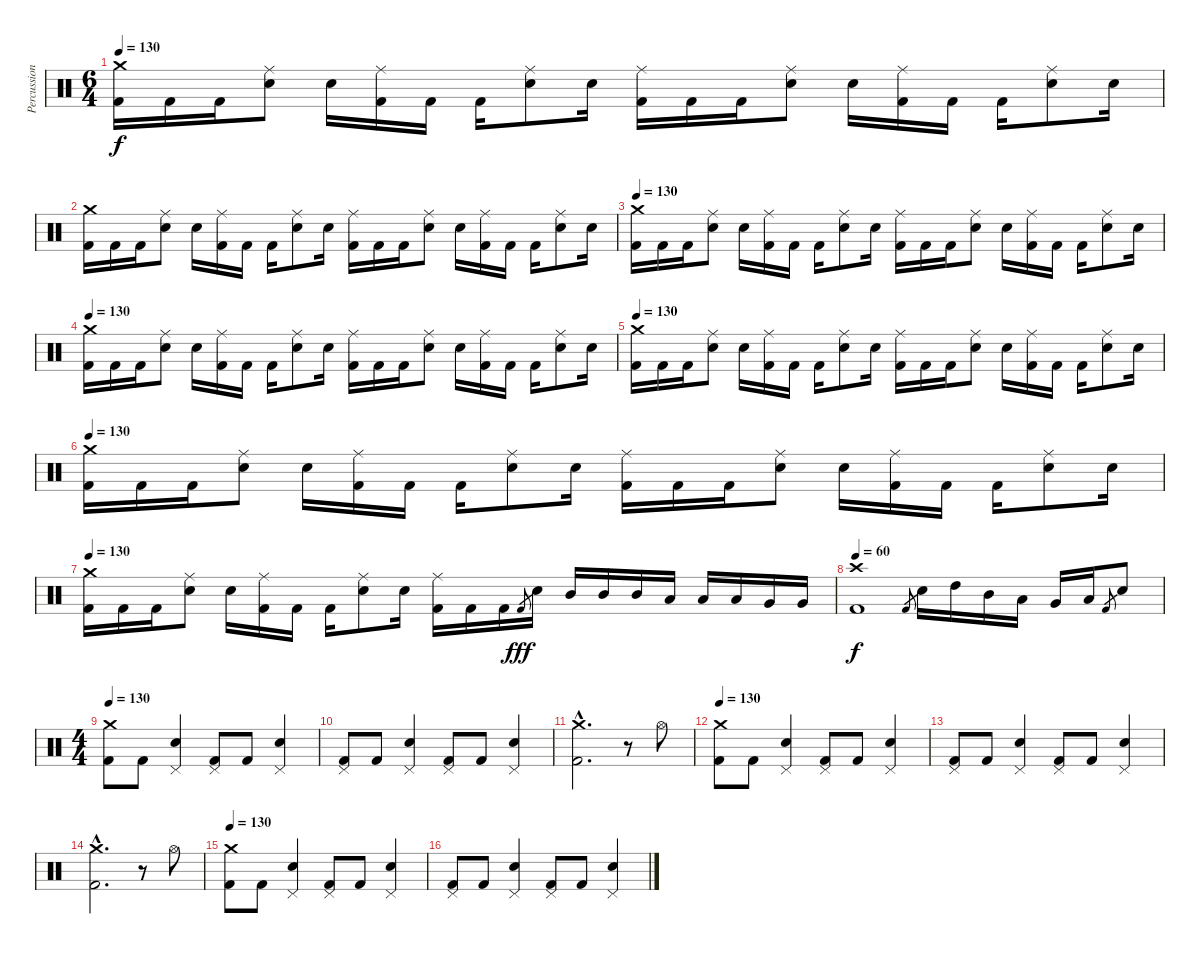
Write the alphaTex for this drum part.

\track ("Percussions" "Percussion") {instrument percussion}
\staff {score}
\articulation defaults
\ts (6 4)
\tempo 130
\clef neutral
\ks c
("Crash medium (hit)" "Kick (hit) 2").16{dy f} "Kick (hit) 2".16 "Kick (hit) 2".16 ("Ride (middle)" "Snare (hit) 2").8 "Snare (hit) 2".16 ("Ride (middle)" "Kick (hit) 2").16 "Kick (hit) 2".16 "Kick (hit) 2".16 ("Ride (middle)" "Snare (hit) 2").8 "Snare (hit) 2".16 ("Ride (middle)" "Kick (hit) 2").16 "Kick (hit) 2".16 "Kick (hit) 2".16 ("Ride (middle)" "Snare (hit) 2").8 "Snare (hit) 2".16 ("Ride (middle)" "Kick (hit) 2").16 "Kick (hit) 2".16 "Kick (hit) 2".16 ("Ride (middle)" "Snare (hit) 2").8 "Snare (hit) 2".16 |
("Crash medium (hit)" "Kick (hit) 2").16 "Kick (hit) 2".16 "Kick (hit) 2".16 ("Ride (middle)" "Snare (hit) 2").8 "Snare (hit) 2".16 ("Ride (middle)" "Kick (hit) 2").16 "Kick (hit) 2".16 "Kick (hit) 2".16 ("Ride (middle)" "Snare (hit) 2").8 "Snare (hit) 2".16 ("Ride (middle)" "Kick (hit) 2").16 "Kick (hit) 2".16 "Kick (hit) 2".16 ("Ride (middle)" "Snare (hit) 2").8 "Snare (hit) 2".16 ("Ride (middle)" "Kick (hit) 2").16 "Kick (hit) 2".16 "Kick (hit) 2".16 ("Ride (middle)" "Snare (hit) 2").8 "Snare (hit) 2".16 |
\tempo 130
("Crash medium (hit)" "Kick (hit) 2").16 "Kick (hit) 2".16 "Kick (hit) 2".16 ("Ride (middle)" "Snare (hit) 2").8 "Snare (hit) 2".16 ("Ride (middle)" "Kick (hit) 2").16 "Kick (hit) 2".16 "Kick (hit) 2".16 ("Ride (middle)" "Snare (hit) 2").8 "Snare (hit) 2".16 ("Ride (middle)" "Kick (hit) 2").16 "Kick (hit) 2".16 "Kick (hit) 2".16 ("Ride (middle)" "Snare (hit) 2").8 "Snare (hit) 2".16 ("Ride (middle)" "Kick (hit) 2").16 "Kick (hit) 2".16 "Kick (hit) 2".16 ("Ride (middle)" "Snare (hit) 2").8 "Snare (hit) 2".16 |
\tempo 130
("Crash medium (hit)" "Kick (hit) 2").16 "Kick (hit) 2".16 "Kick (hit) 2".16 ("Ride (middle)" "Snare (hit) 2").8 "Snare (hit) 2".16 ("Ride (middle)" "Kick (hit) 2").16 "Kick (hit) 2".16 "Kick (hit) 2".16 ("Ride (middle)" "Snare (hit) 2").8 "Snare (hit) 2".16 ("Ride (middle)" "Kick (hit) 2").16 "Kick (hit) 2".16 "Kick (hit) 2".16 ("Ride (middle)" "Snare (hit) 2").8 "Snare (hit) 2".16 ("Ride (middle)" "Kick (hit) 2").16 "Kick (hit) 2".16 "Kick (hit) 2".16 ("Ride (middle)" "Snare (hit) 2").8 "Snare (hit) 2".16 |
\tempo 130
("Crash medium (hit)" "Kick (hit) 2").16 "Kick (hit) 2".16 "Kick (hit) 2".16 ("Ride (middle)" "Snare (hit) 2").8 "Snare (hit) 2".16 ("Ride (middle)" "Kick (hit) 2").16 "Kick (hit) 2".16 "Kick (hit) 2".16 ("Ride (middle)" "Snare (hit) 2").8 "Snare (hit) 2".16 ("Ride (middle)" "Kick (hit) 2").16 "Kick (hit) 2".16 "Kick (hit) 2".16 ("Ride (middle)" "Snare (hit) 2").8 "Snare (hit) 2".16 ("Ride (middle)" "Kick (hit) 2").16 "Kick (hit) 2".16 "Kick (hit) 2".16 ("Ride (middle)" "Snare (hit) 2").8 "Snare (hit) 2".16 |
\tempo 130
("Crash medium (hit)" "Kick (hit) 2").16 "Kick (hit) 2".16 "Kick (hit) 2".16 ("Ride (middle)" "Snare (hit) 2").8 "Snare (hit) 2".16 ("Ride (middle)" "Kick (hit) 2").16 "Kick (hit) 2".16 "Kick (hit) 2".16 ("Ride (middle)" "Snare (hit) 2").8 "Snare (hit) 2".16 ("Ride (middle)" "Kick (hit) 2").16 "Kick (hit) 2".16 "Kick (hit) 2".16 ("Ride (middle)" "Snare (hit) 2").8 "Snare (hit) 2".16 ("Ride (middle)" "Kick (hit) 2").16 "Kick (hit) 2".16 "Kick (hit) 2".16 ("Ride (middle)" "Snare (hit) 2").8 "Snare (hit) 2".16 |
\tempo 80
\tempo 130
("Crash medium (hit)" "Kick (hit) 2").16 "Kick (hit) 2".16 "Kick (hit) 2".16 ("Ride (middle)" "Snare (hit) 2").8 "Snare (hit) 2".16 ("Ride (middle)" "Kick (hit) 2").16 "Kick (hit) 2".16 "Kick (hit) 2".16 ("Ride (middle)" "Snare (hit) 2").8 "Snare (hit) 2".16 ("Ride (middle)" "Kick (hit) 2").16 "Kick (hit) 2".16 "Kick (hit) 2".16 "Kick (hit) 2".8{gr dy fff} "Snare (hit) 2".16 "Mid Tom (hit)".16 "Mid Tom (hit)".16 "Mid Tom (hit)".16 "Low Tom (hit)".16 "Low Tom (hit)".16 "Low Tom (hit)".16 "Very Low Tom (hit)".16 "Very Low Tom (hit)".16 |
\tempo 60
("Crash high (hit)" "Kick (hit) 2").1{dy f} "Kick (hit) 2".8{gr} "Snare (hit) 2".16 "High Tom (hit)".16 "Mid Tom (hit)".16 "Low Tom (hit)".16 "Very Low Tom (hit)".16 "Low Floor Tom (hit)".16 "Kick (hit) 2".8{gr} "Snare (hit) 2".8 |
\ts (4 4)
\tempo 120
\tempo 130
("Crash medium (hit)" "Kick (hit) 2").8 "Kick (hit) 2".8 ("Pedal Hi-Hat (hit)" "Snare (hit) 2").4 ("Pedal Hi-Hat (hit)" "Kick (hit) 2").8 "Kick (hit) 2".8 ("Pedal Hi-Hat (hit)" "Snare (hit) 2").4 |
("Pedal Hi-Hat (hit)" "Kick (hit) 2").8 "Kick (hit) 2".8 ("Pedal Hi-Hat (hit)" "Snare (hit) 2").4 ("Pedal Hi-Hat (hit)" "Kick (hit) 2").8 "Kick (hit) 2".8 ("Pedal Hi-Hat (hit)" "Snare (hit) 2").4 |
("Crash medium (hit)"{hac} "Kick (hit) 2"{hac}).2{d} r.8 "Hi-Hat (open)".8 |
\tempo 130
("Crash medium (hit)" "Kick (hit) 2").8 "Kick (hit) 2".8 ("Pedal Hi-Hat (hit)" "Snare (hit) 2").4 ("Pedal Hi-Hat (hit)" "Kick (hit) 2").8 "Kick (hit) 2".8 ("Pedal Hi-Hat (hit)" "Snare (hit) 2").4 |
("Pedal Hi-Hat (hit)" "Kick (hit) 2").8 "Kick (hit) 2".8 ("Pedal Hi-Hat (hit)" "Snare (hit) 2").4 ("Pedal Hi-Hat (hit)" "Kick (hit) 2").8 "Kick (hit) 2".8 ("Pedal Hi-Hat (hit)" "Snare (hit) 2").4 |
("Crash medium (hit)"{hac} "Kick (hit) 2"{hac}).2{d} r.8 "Hi-Hat (open)".8 |
\tempo 130
("Crash medium (hit)" "Kick (hit) 2").8 "Kick (hit) 2".8 ("Pedal Hi-Hat (hit)" "Snare (hit) 2").4 ("Pedal Hi-Hat (hit)" "Kick (hit) 2").8 "Kick (hit) 2".8 ("Pedal Hi-Hat (hit)" "Snare (hit) 2").4 |
("Pedal Hi-Hat (hit)" "Kick (hit) 2").8 "Kick (hit) 2".8 ("Pedal Hi-Hat (hit)" "Snare (hit) 2").4 ("Pedal Hi-Hat (hit)" "Kick (hit) 2").8 "Kick (hit) 2".8 ("Pedal Hi-Hat (hit)" "Snare (hit) 2").4
